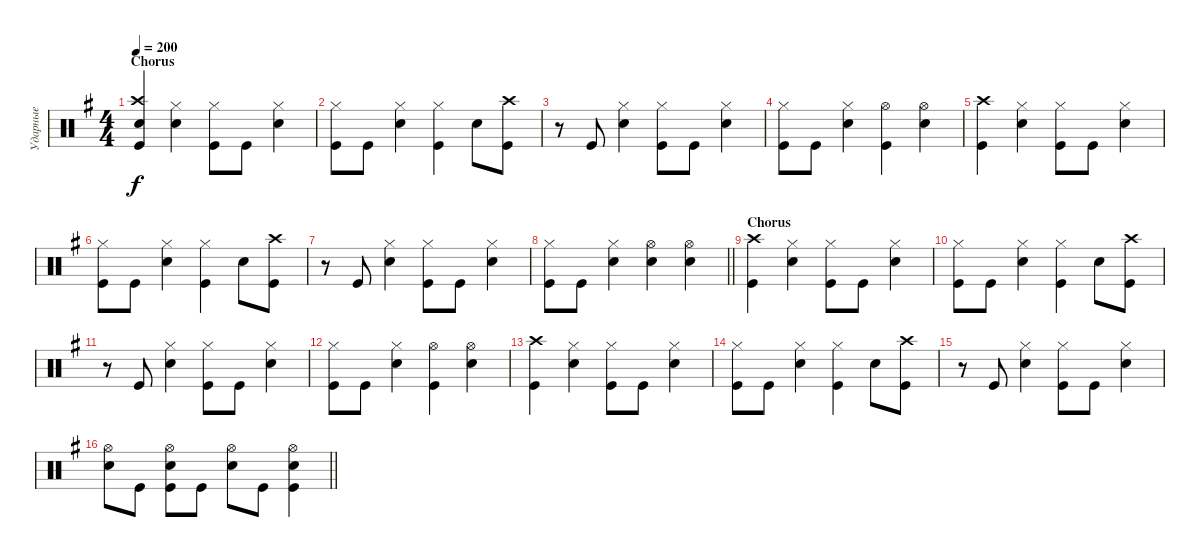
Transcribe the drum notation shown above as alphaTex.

\track ("Ударные" "Ударные") {instrument percussion}
\staff {score}
\articulation defaults
\ts (4 4)
\section ("" "Chorus")
\tempo 200
\clef neutral
\ks eminor
("Kick (hit)" "Crash high (hit)" "Snare (hit) 2").4{dy f} ("Snare (hit) 2" "Hi-Hat (closed)").4 ("Kick (hit)" "Hi-Hat (closed)").8 "Kick (hit)".8 ("Snare (hit) 2" "Hi-Hat (closed)").4 |
("Kick (hit)" "Hi-Hat (closed)").8 "Kick (hit)".8 ("Snare (hit) 2" "Hi-Hat (closed)").4 ("Kick (hit)" "Hi-Hat (closed)").4 "Snare (hit) 2".8 ("Crash high (hit)" "Kick (hit)").8 |
r.8 "Kick (hit)".8 ("Snare (hit) 2" "Hi-Hat (closed)").4 ("Kick (hit)" "Hi-Hat (closed)").8 "Kick (hit)".8 ("Snare (hit) 2" "Hi-Hat (closed)").4 |
("Kick (hit)" "Hi-Hat (closed)").8 "Kick (hit)".8 ("Snare (hit) 2" "Hi-Hat (closed)").4 ("Kick (hit)" "Hi-Hat (open)").4 ("Snare (hit) 2" "Hi-Hat (open)").4 |
("Kick (hit)" "Crash high (hit)").4 ("Snare (hit) 2" "Hi-Hat (closed)").4 ("Kick (hit)" "Hi-Hat (closed)").8 "Kick (hit)".8 ("Snare (hit) 2" "Hi-Hat (closed)").4 |
("Kick (hit)" "Hi-Hat (closed)").8 "Kick (hit)".8 ("Snare (hit) 2" "Hi-Hat (closed)").4 ("Kick (hit)" "Hi-Hat (closed)").4 "Snare (hit) 2".8 ("Crash high (hit)" "Kick (hit)").8 |
r.8 "Kick (hit)".8 ("Snare (hit) 2" "Hi-Hat (closed)").4 ("Kick (hit)" "Hi-Hat (closed)").8 "Kick (hit)".8 ("Snare (hit) 2" "Hi-Hat (closed)").4 |
\barLineRight lightlight
("Kick (hit)" "Hi-Hat (closed)").8 "Kick (hit)".8 ("Snare (hit) 2" "Hi-Hat (closed)").4 ("Snare (hit) 2" "Hi-Hat (open)").4 ("Snare (hit) 2" "Hi-Hat (open)").4 |
\section ("" "Chorus")
("Kick (hit)" "Crash high (hit)").4 ("Snare (hit) 2" "Hi-Hat (closed)").4 ("Kick (hit)" "Hi-Hat (closed)").8 "Kick (hit)".8 ("Snare (hit) 2" "Hi-Hat (closed)").4 |
("Kick (hit)" "Hi-Hat (closed)").8 "Kick (hit)".8 ("Snare (hit) 2" "Hi-Hat (closed)").4 ("Kick (hit)" "Hi-Hat (closed)").4 "Snare (hit) 2".8 ("Crash high (hit)" "Kick (hit)").8 |
r.8 "Kick (hit)".8 ("Snare (hit) 2" "Hi-Hat (closed)").4 ("Kick (hit)" "Hi-Hat (closed)").8 "Kick (hit)".8 ("Snare (hit) 2" "Hi-Hat (closed)").4 |
("Kick (hit)" "Hi-Hat (closed)").8 "Kick (hit)".8 ("Snare (hit) 2" "Hi-Hat (closed)").4 ("Kick (hit)" "Hi-Hat (open)").4 ("Snare (hit) 2" "Hi-Hat (open)").4 |
("Kick (hit)" "Crash high (hit)").4 ("Snare (hit) 2" "Hi-Hat (closed)").4 ("Kick (hit)" "Hi-Hat (closed)").8 "Kick (hit)".8 ("Snare (hit) 2" "Hi-Hat (closed)").4 |
("Kick (hit)" "Hi-Hat (closed)").8 "Kick (hit)".8 ("Snare (hit) 2" "Hi-Hat (closed)").4 ("Kick (hit)" "Hi-Hat (closed)").4 "Snare (hit) 2".8 ("Crash high (hit)" "Kick (hit)").8 |
r.8 "Kick (hit)".8 ("Snare (hit) 2" "Hi-Hat (closed)").4 ("Kick (hit)" "Hi-Hat (closed)").8 "Kick (hit)".8 ("Snare (hit) 2" "Hi-Hat (closed)").4 |
\barLineRight lightlight
("Snare (hit) 2" "Hi-Hat (open)").8 "Kick (hit)".8 ("Snare (hit) 2" "Hi-Hat (open)" "Kick (hit)").8 "Kick (hit)".8 ("Snare (hit) 2" "Hi-Hat (open)").8 "Kick (hit)".8 ("Snare (hit) 2" "Hi-Hat (open)" "Kick (hit)").4
